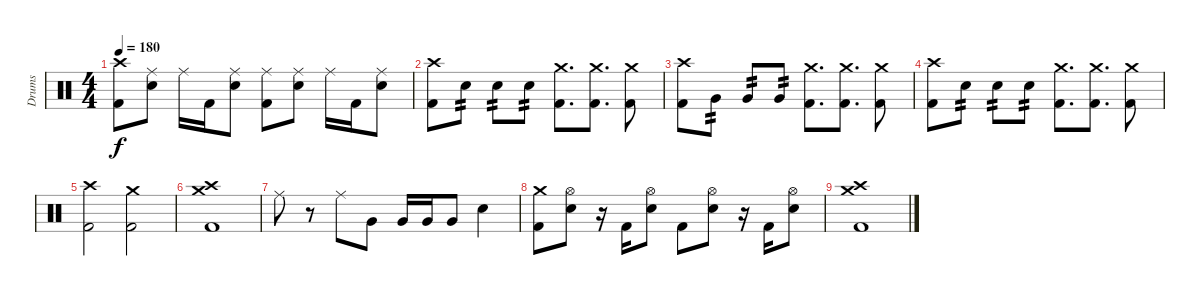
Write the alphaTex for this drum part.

\track ("Drums" "Drums") {instrument percussion}
\staff {score}
\articulation defaults
\ts (4 4)
\tempo 180
\clef neutral
\ks c
("Crash high (hit)" "Kick (hit) 2").8{dy f} ("Ride (middle)" "Electric Snare (hit)").8 "Ride (middle)".16 "Kick (hit) 2".16 ("Ride (middle)" "Electric Snare (hit)").8 ("Ride (middle)" "Kick (hit) 2").8 ("Ride (middle)" "Electric Snare (hit)").8 "Ride (middle)".16 "Kick (hit) 2".16 ("Ride (middle)" "Electric Snare (hit)").8 |
("Crash high (hit)" "Kick (hit) 2").8 "Electric Snare (hit)".8{tp 2} "Electric Snare (hit)".8{tp 2} "Electric Snare (hit)".8{tp 2} ("Crash medium (hit)" "Kick (hit) 2").8{d} ("Crash medium (hit)" "Kick (hit) 2").8{d} ("Crash medium (hit)" "Kick (hit) 2").8 |
("Crash high (hit)" "Kick (hit) 2").8 "Very Low Tom (hit)".8{tp 2} "Very Low Tom (hit)".8{tp 2} "Very Low Tom (hit)".8{tp 2} ("Crash medium (hit)" "Kick (hit) 2").8{d} ("Crash medium (hit)" "Kick (hit) 2").8{d} ("Crash medium (hit)" "Kick (hit) 2").8 |
("Crash high (hit)" "Kick (hit) 2").8 "Electric Snare (hit)".8{tp 2} "Electric Snare (hit)".8{tp 2} "Electric Snare (hit)".8{tp 2} ("Crash medium (hit)" "Kick (hit) 2").8{d} ("Crash medium (hit)" "Kick (hit) 2").8{d} ("Crash medium (hit)" "Kick (hit) 2").8 |
("Crash high (hit)" "Kick (hit) 2").2 ("Crash medium (hit)" "Kick (hit) 2").2 |
("Crash high (hit)" "Crash medium (hit)" "Kick (hit) 2").1 |
"Ride (middle)".8 r.8 "Ride (middle)".8 "Very Low Tom (hit)".8 "Very Low Tom (hit)".16 "Very Low Tom (hit)".16 "Very Low Tom (hit)".8 "Electric Snare (hit)".4 |
("Crash medium (hit)" "Kick (hit) 2").8 ("Hi-Hat (open)" "Electric Snare (hit)").8 r.16 "Kick (hit) 2".16 ("Hi-Hat (open)" "Electric Snare (hit)").8 "Kick (hit) 2".8 ("Hi-Hat (open)" "Electric Snare (hit)").8 r.16 "Kick (hit) 2".16 ("Hi-Hat (open)" "Electric Snare (hit)").8 |
("Crash high (hit)" "Crash medium (hit)" "Kick (hit) 2").1
